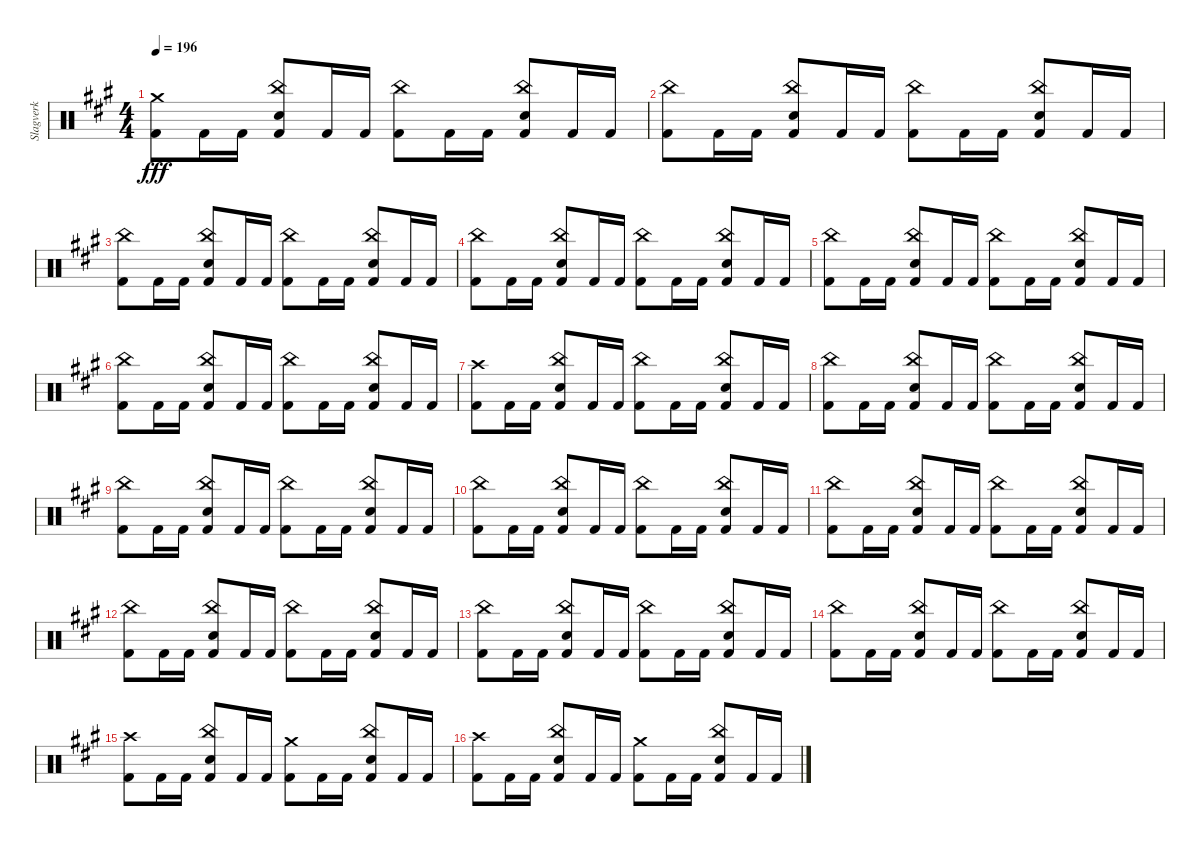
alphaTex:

\track ("Slagverk" "Slagverk") {instrument percussion}
\staff {score}
\articulation defaults
\ts (4 4)
\tempo 196
\clef neutral
\ks a
("Crash medium (hit)" "Kick (hit) 2").8{dy fff} "Kick (hit) 2".16 "Kick (hit) 2".16 ("China (hit)" "Snare (hit) 2" "Kick (hit) 2").8 "Kick (hit) 2".16 "Kick (hit) 2".16 ("China (hit)" "Kick (hit) 2").8 "Kick (hit) 2".16 "Kick (hit) 2".16 ("China (hit)" "Snare (hit) 2" "Kick (hit) 2").8 "Kick (hit) 2".16 "Kick (hit) 2".16 |
("China (hit)" "Kick (hit) 2").8 "Kick (hit) 2".16 "Kick (hit) 2".16 ("China (hit)" "Snare (hit) 2" "Kick (hit) 2").8 "Kick (hit) 2".16 "Kick (hit) 2".16 ("China (hit)" "Kick (hit) 2").8 "Kick (hit) 2".16 "Kick (hit) 2".16 ("China (hit)" "Snare (hit) 2" "Kick (hit) 2").8 "Kick (hit) 2".16 "Kick (hit) 2".16 |
("China (hit)" "Kick (hit) 2").8 "Kick (hit) 2".16 "Kick (hit) 2".16 ("China (hit)" "Snare (hit) 2" "Kick (hit) 2").8 "Kick (hit) 2".16 "Kick (hit) 2".16 ("China (hit)" "Kick (hit) 2").8 "Kick (hit) 2".16 "Kick (hit) 2".16 ("China (hit)" "Snare (hit) 2" "Kick (hit) 2").8 "Kick (hit) 2".16 "Kick (hit) 2".16 |
("China (hit)" "Kick (hit) 2").8 "Kick (hit) 2".16 "Kick (hit) 2".16 ("China (hit)" "Snare (hit) 2" "Kick (hit) 2").8 "Kick (hit) 2".16 "Kick (hit) 2".16 ("China (hit)" "Kick (hit) 2").8 "Kick (hit) 2".16 "Kick (hit) 2".16 ("China (hit)" "Snare (hit) 2" "Kick (hit) 2").8 "Kick (hit) 2".16 "Kick (hit) 2".16 |
("China (hit)" "Kick (hit) 2").8 "Kick (hit) 2".16 "Kick (hit) 2".16 ("China (hit)" "Snare (hit) 2" "Kick (hit) 2").8 "Kick (hit) 2".16 "Kick (hit) 2".16 ("China (hit)" "Kick (hit) 2").8 "Kick (hit) 2".16 "Kick (hit) 2".16 ("China (hit)" "Snare (hit) 2" "Kick (hit) 2").8 "Kick (hit) 2".16 "Kick (hit) 2".16 |
("China (hit)" "Kick (hit) 2").8 "Kick (hit) 2".16 "Kick (hit) 2".16 ("China (hit)" "Snare (hit) 2" "Kick (hit) 2").8 "Kick (hit) 2".16 "Kick (hit) 2".16 ("China (hit)" "Kick (hit) 2").8 "Kick (hit) 2".16 "Kick (hit) 2".16 ("China (hit)" "Snare (hit) 2" "Kick (hit) 2").8 "Kick (hit) 2".16 "Kick (hit) 2".16 |
("Crash high (hit)" "Kick (hit) 2").8 "Kick (hit) 2".16 "Kick (hit) 2".16 ("China (hit)" "Snare (hit) 2" "Kick (hit) 2").8 "Kick (hit) 2".16 "Kick (hit) 2".16 ("China (hit)" "Kick (hit) 2").8 "Kick (hit) 2".16 "Kick (hit) 2".16 ("China (hit)" "Snare (hit) 2" "Kick (hit) 2").8 "Kick (hit) 2".16 "Kick (hit) 2".16 |
("China (hit)" "Kick (hit) 2").8 "Kick (hit) 2".16 "Kick (hit) 2".16 ("China (hit)" "Snare (hit) 2" "Kick (hit) 2").8 "Kick (hit) 2".16 "Kick (hit) 2".16 ("China (hit)" "Kick (hit) 2").8 "Kick (hit) 2".16 "Kick (hit) 2".16 ("China (hit)" "Snare (hit) 2" "Kick (hit) 2").8 "Kick (hit) 2".16 "Kick (hit) 2".16 |
("China (hit)" "Kick (hit) 2").8 "Kick (hit) 2".16 "Kick (hit) 2".16 ("China (hit)" "Snare (hit) 2" "Kick (hit) 2").8 "Kick (hit) 2".16 "Kick (hit) 2".16 ("China (hit)" "Kick (hit) 2").8 "Kick (hit) 2".16 "Kick (hit) 2".16 ("China (hit)" "Snare (hit) 2" "Kick (hit) 2").8 "Kick (hit) 2".16 "Kick (hit) 2".16 |
("China (hit)" "Kick (hit) 2").8 "Kick (hit) 2".16 "Kick (hit) 2".16 ("China (hit)" "Snare (hit) 2" "Kick (hit) 2").8 "Kick (hit) 2".16 "Kick (hit) 2".16 ("China (hit)" "Kick (hit) 2").8 "Kick (hit) 2".16 "Kick (hit) 2".16 ("China (hit)" "Snare (hit) 2" "Kick (hit) 2").8 "Kick (hit) 2".16 "Kick (hit) 2".16 |
("China (hit)" "Kick (hit) 2").8 "Kick (hit) 2".16 "Kick (hit) 2".16 ("China (hit)" "Snare (hit) 2" "Kick (hit) 2").8 "Kick (hit) 2".16 "Kick (hit) 2".16 ("China (hit)" "Kick (hit) 2").8 "Kick (hit) 2".16 "Kick (hit) 2".16 ("China (hit)" "Snare (hit) 2" "Kick (hit) 2").8 "Kick (hit) 2".16 "Kick (hit) 2".16 |
("China (hit)" "Kick (hit) 2").8 "Kick (hit) 2".16 "Kick (hit) 2".16 ("China (hit)" "Snare (hit) 2" "Kick (hit) 2").8 "Kick (hit) 2".16 "Kick (hit) 2".16 ("China (hit)" "Kick (hit) 2").8 "Kick (hit) 2".16 "Kick (hit) 2".16 ("China (hit)" "Snare (hit) 2" "Kick (hit) 2").8 "Kick (hit) 2".16 "Kick (hit) 2".16 |
("China (hit)" "Kick (hit) 2").8 "Kick (hit) 2".16 "Kick (hit) 2".16 ("China (hit)" "Snare (hit) 2" "Kick (hit) 2").8 "Kick (hit) 2".16 "Kick (hit) 2".16 ("China (hit)" "Kick (hit) 2").8 "Kick (hit) 2".16 "Kick (hit) 2".16 ("China (hit)" "Snare (hit) 2" "Kick (hit) 2").8 "Kick (hit) 2".16 "Kick (hit) 2".16 |
("China (hit)" "Kick (hit) 2").8 "Kick (hit) 2".16 "Kick (hit) 2".16 ("China (hit)" "Snare (hit) 2" "Kick (hit) 2").8 "Kick (hit) 2".16 "Kick (hit) 2".16 ("China (hit)" "Kick (hit) 2").8 "Kick (hit) 2".16 "Kick (hit) 2".16 ("China (hit)" "Snare (hit) 2" "Kick (hit) 2").8 "Kick (hit) 2".16 "Kick (hit) 2".16 |
("Crash high (hit)" "Kick (hit) 2").8 "Kick (hit) 2".16 "Kick (hit) 2".16 ("China (hit)" "Snare (hit) 2" "Kick (hit) 2").8 "Kick (hit) 2".16 "Kick (hit) 2".16 ("Crash medium (hit)" "Kick (hit) 2").8 "Kick (hit) 2".16 "Kick (hit) 2".16 ("China (hit)" "Snare (hit) 2" "Kick (hit) 2").8 "Kick (hit) 2".16 "Kick (hit) 2".16 |
("Crash high (hit)" "Kick (hit) 2").8 "Kick (hit) 2".16 "Kick (hit) 2".16 ("China (hit)" "Snare (hit) 2" "Kick (hit) 2").8 "Kick (hit) 2".16 "Kick (hit) 2".16 ("Crash medium (hit)" "Kick (hit) 2").8 "Kick (hit) 2".16 "Kick (hit) 2".16 ("China (hit)" "Snare (hit) 2" "Kick (hit) 2").8 "Kick (hit) 2".16 "Kick (hit) 2".16
